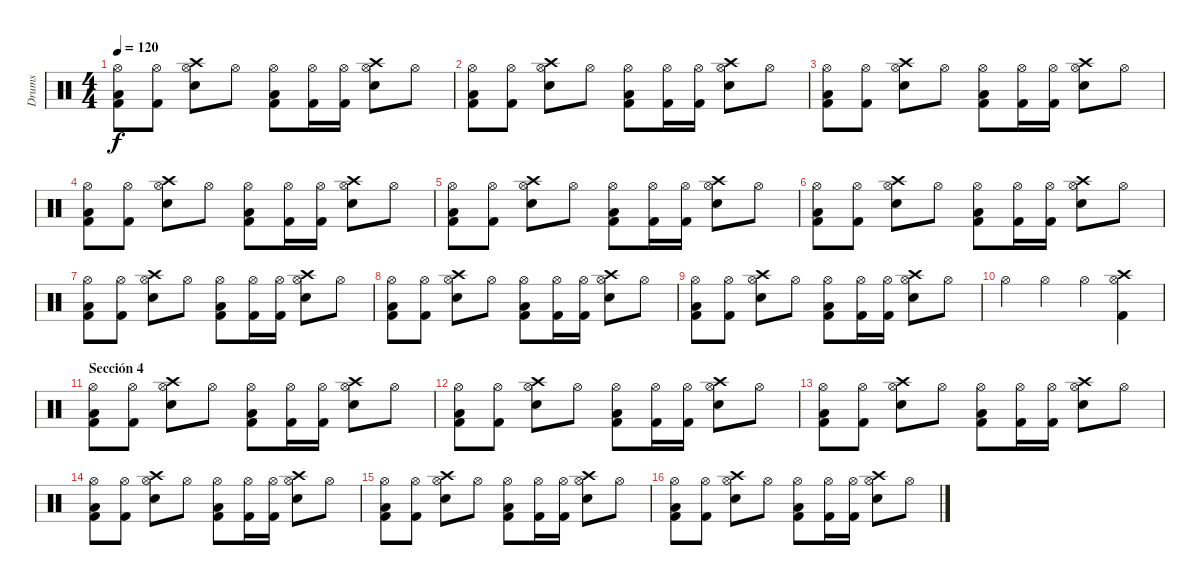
\track ("Drums" "Drums") {instrument percussion}
\staff {score}
\articulation defaults
\ts (4 4)
\tempo 120
\clef neutral
\ks c
("Hi-Hat (open)" "Low Tom (hit)" "Kick (hit) 2").8{dy f} ("Hi-Hat (open)" "Kick (hit) 2").8 ("Hi-Hat (open)" "Crash high (hit)" "Snare (hit) 2").8 "Hi-Hat (open)".8 ("Hi-Hat (open)" "Low Tom (hit)" "Kick (hit) 2").8 ("Hi-Hat (open)" "Kick (hit) 2").16 ("Hi-Hat (open)" "Kick (hit) 2").16 ("Hi-Hat (open)" "Crash high (hit)" "Snare (hit) 2").8 "Hi-Hat (open)".8 |
("Hi-Hat (open)" "Low Tom (hit)" "Kick (hit) 2").8 ("Hi-Hat (open)" "Kick (hit) 2").8 ("Hi-Hat (open)" "Crash high (hit)" "Snare (hit) 2").8 "Hi-Hat (open)".8 ("Hi-Hat (open)" "Low Tom (hit)" "Kick (hit) 2").8 ("Hi-Hat (open)" "Kick (hit) 2").16 ("Hi-Hat (open)" "Kick (hit) 2").16 ("Hi-Hat (open)" "Crash high (hit)" "Snare (hit) 2").8 "Hi-Hat (open)".8 |
("Hi-Hat (open)" "Low Tom (hit)" "Kick (hit) 2").8 ("Hi-Hat (open)" "Kick (hit) 2").8 ("Hi-Hat (open)" "Crash high (hit)" "Snare (hit) 2").8 "Hi-Hat (open)".8 ("Hi-Hat (open)" "Low Tom (hit)" "Kick (hit) 2").8 ("Hi-Hat (open)" "Kick (hit) 2").16 ("Hi-Hat (open)" "Kick (hit) 2").16 ("Hi-Hat (open)" "Crash high (hit)" "Snare (hit) 2").8 "Hi-Hat (open)".8 |
("Hi-Hat (open)" "Low Tom (hit)" "Kick (hit) 2").8 ("Hi-Hat (open)" "Kick (hit) 2").8 ("Hi-Hat (open)" "Crash high (hit)" "Snare (hit) 2").8 "Hi-Hat (open)".8 ("Hi-Hat (open)" "Low Tom (hit)" "Kick (hit) 2").8 ("Hi-Hat (open)" "Kick (hit) 2").16 ("Hi-Hat (open)" "Kick (hit) 2").16 ("Hi-Hat (open)" "Crash high (hit)" "Snare (hit) 2").8 "Hi-Hat (open)".8 |
("Hi-Hat (open)" "Low Tom (hit)" "Kick (hit) 2").8 ("Hi-Hat (open)" "Kick (hit) 2").8 ("Hi-Hat (open)" "Crash high (hit)" "Snare (hit) 2").8 "Hi-Hat (open)".8 ("Hi-Hat (open)" "Low Tom (hit)" "Kick (hit) 2").8 ("Hi-Hat (open)" "Kick (hit) 2").16 ("Hi-Hat (open)" "Kick (hit) 2").16 ("Hi-Hat (open)" "Crash high (hit)" "Snare (hit) 2").8 "Hi-Hat (open)".8 |
("Hi-Hat (open)" "Low Tom (hit)" "Kick (hit) 2").8 ("Hi-Hat (open)" "Kick (hit) 2").8 ("Hi-Hat (open)" "Crash high (hit)" "Snare (hit) 2").8 "Hi-Hat (open)".8 ("Hi-Hat (open)" "Low Tom (hit)" "Kick (hit) 2").8 ("Hi-Hat (open)" "Kick (hit) 2").16 ("Hi-Hat (open)" "Kick (hit) 2").16 ("Hi-Hat (open)" "Crash high (hit)" "Snare (hit) 2").8 "Hi-Hat (open)".8 |
("Hi-Hat (open)" "Low Tom (hit)" "Kick (hit) 2").8 ("Hi-Hat (open)" "Kick (hit) 2").8 ("Hi-Hat (open)" "Crash high (hit)" "Snare (hit) 2").8 "Hi-Hat (open)".8 ("Hi-Hat (open)" "Low Tom (hit)" "Kick (hit) 2").8 ("Hi-Hat (open)" "Kick (hit) 2").16 ("Hi-Hat (open)" "Kick (hit) 2").16 ("Hi-Hat (open)" "Crash high (hit)" "Snare (hit) 2").8 "Hi-Hat (open)".8 |
("Hi-Hat (open)" "Low Tom (hit)" "Kick (hit) 2").8 ("Hi-Hat (open)" "Kick (hit) 2").8 ("Hi-Hat (open)" "Crash high (hit)" "Snare (hit) 2").8 "Hi-Hat (open)".8 ("Hi-Hat (open)" "Low Tom (hit)" "Kick (hit) 2").8 ("Hi-Hat (open)" "Kick (hit) 2").16 ("Hi-Hat (open)" "Kick (hit) 2").16 ("Hi-Hat (open)" "Crash high (hit)" "Snare (hit) 2").8 "Hi-Hat (open)".8 |
("Hi-Hat (open)" "Low Tom (hit)" "Kick (hit) 2").8 ("Hi-Hat (open)" "Kick (hit) 2").8 ("Hi-Hat (open)" "Crash high (hit)" "Snare (hit) 2").8 "Hi-Hat (open)".8 ("Hi-Hat (open)" "Low Tom (hit)" "Kick (hit) 2").8 ("Hi-Hat (open)" "Kick (hit) 2").16 ("Hi-Hat (open)" "Kick (hit) 2").16 ("Hi-Hat (open)" "Crash high (hit)" "Snare (hit) 2").8 "Hi-Hat (open)".8 |
"Hi-Hat (open)".4 "Hi-Hat (open)".4 "Hi-Hat (open)".4 ("Crash high (hit)" "Hi-Hat (open)" "Kick (hit) 2").4 |
\section ("" "Sección 4")
("Hi-Hat (open)" "Low Tom (hit)" "Kick (hit) 2").8 ("Hi-Hat (open)" "Kick (hit) 2").8 ("Hi-Hat (open)" "Crash high (hit)" "Snare (hit) 2").8 "Hi-Hat (open)".8 ("Hi-Hat (open)" "Low Tom (hit)" "Kick (hit) 2").8 ("Hi-Hat (open)" "Kick (hit) 2").16 ("Hi-Hat (open)" "Kick (hit) 2").16 ("Hi-Hat (open)" "Crash high (hit)" "Snare (hit) 2").8 "Hi-Hat (open)".8 |
("Hi-Hat (open)" "Low Tom (hit)" "Kick (hit) 2").8 ("Hi-Hat (open)" "Kick (hit) 2").8 ("Hi-Hat (open)" "Crash high (hit)" "Snare (hit) 2").8 "Hi-Hat (open)".8 ("Hi-Hat (open)" "Low Tom (hit)" "Kick (hit) 2").8 ("Hi-Hat (open)" "Kick (hit) 2").16 ("Hi-Hat (open)" "Kick (hit) 2").16 ("Hi-Hat (open)" "Crash high (hit)" "Snare (hit) 2").8 "Hi-Hat (open)".8 |
("Hi-Hat (open)" "Low Tom (hit)" "Kick (hit) 2").8 ("Hi-Hat (open)" "Kick (hit) 2").8 ("Hi-Hat (open)" "Crash high (hit)" "Snare (hit) 2").8 "Hi-Hat (open)".8 ("Hi-Hat (open)" "Low Tom (hit)" "Kick (hit) 2").8 ("Hi-Hat (open)" "Kick (hit) 2").16 ("Hi-Hat (open)" "Kick (hit) 2").16 ("Hi-Hat (open)" "Crash high (hit)" "Snare (hit) 2").8 "Hi-Hat (open)".8 |
("Hi-Hat (open)" "Low Tom (hit)" "Kick (hit) 2").8 ("Hi-Hat (open)" "Kick (hit) 2").8 ("Hi-Hat (open)" "Crash high (hit)" "Snare (hit) 2").8 "Hi-Hat (open)".8 ("Hi-Hat (open)" "Low Tom (hit)" "Kick (hit) 2").8 ("Hi-Hat (open)" "Kick (hit) 2").16 ("Hi-Hat (open)" "Kick (hit) 2").16 ("Hi-Hat (open)" "Crash high (hit)" "Snare (hit) 2").8 "Hi-Hat (open)".8 |
("Hi-Hat (open)" "Low Tom (hit)" "Kick (hit) 2").8 ("Hi-Hat (open)" "Kick (hit) 2").8 ("Hi-Hat (open)" "Crash high (hit)" "Snare (hit) 2").8 "Hi-Hat (open)".8 ("Hi-Hat (open)" "Low Tom (hit)" "Kick (hit) 2").8 ("Hi-Hat (open)" "Kick (hit) 2").16 ("Hi-Hat (open)" "Kick (hit) 2").16 ("Hi-Hat (open)" "Crash high (hit)" "Snare (hit) 2").8 "Hi-Hat (open)".8 |
("Hi-Hat (open)" "Low Tom (hit)" "Kick (hit) 2").8 ("Hi-Hat (open)" "Kick (hit) 2").8 ("Hi-Hat (open)" "Crash high (hit)" "Snare (hit) 2").8 "Hi-Hat (open)".8 ("Hi-Hat (open)" "Low Tom (hit)" "Kick (hit) 2").8 ("Hi-Hat (open)" "Kick (hit) 2").16 ("Hi-Hat (open)" "Kick (hit) 2").16 ("Hi-Hat (open)" "Crash high (hit)" "Snare (hit) 2").8 "Hi-Hat (open)".8
